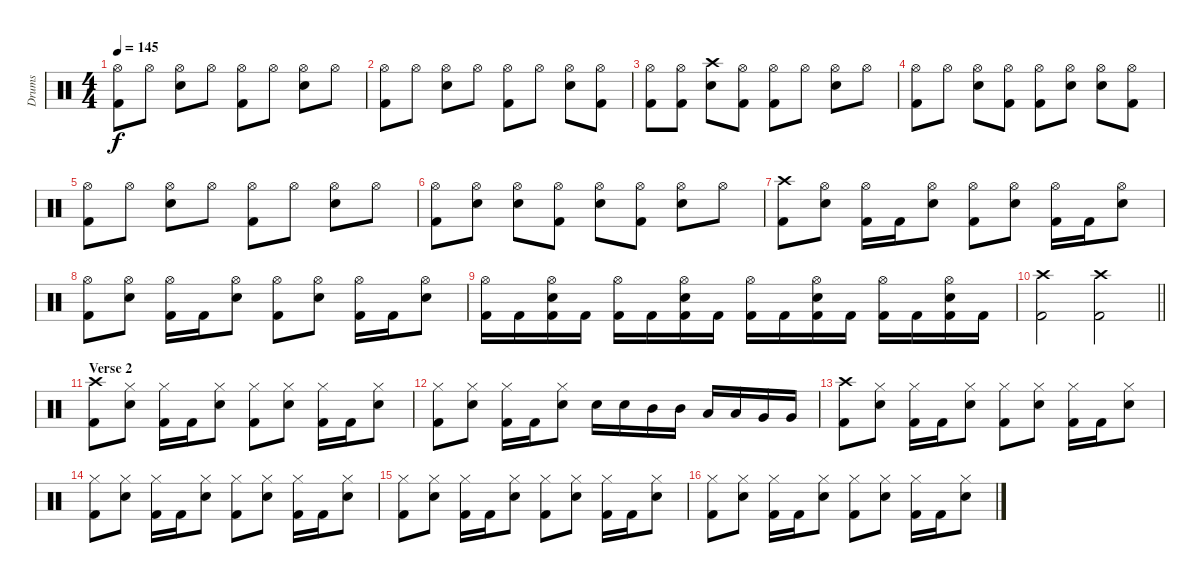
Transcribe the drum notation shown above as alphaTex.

\track ("Drums" "Drums") {instrument percussion}
\staff {score}
\articulation defaults
\ts (4 4)
\tempo 145
\clef neutral
\ks c
("Hi-Hat (open)" "Kick (hit) 2").8{dy f} "Hi-Hat (open)".8 ("Hi-Hat (open)" "Snare (hit) 2").8 "Hi-Hat (open)".8 ("Hi-Hat (open)" "Kick (hit) 2").8 "Hi-Hat (open)".8 ("Hi-Hat (open)" "Snare (hit) 2").8 "Hi-Hat (open)".8 |
("Hi-Hat (open)" "Kick (hit) 2").8 "Hi-Hat (open)".8 ("Hi-Hat (open)" "Snare (hit) 2").8 "Hi-Hat (open)".8 ("Hi-Hat (open)" "Kick (hit) 2").8 "Hi-Hat (open)".8 ("Hi-Hat (open)" "Snare (hit) 2").8 ("Hi-Hat (open)" "Kick (hit) 2").8 |
("Hi-Hat (open)" "Kick (hit) 2").8 ("Hi-Hat (open)" "Kick (hit) 2").8 ("Crash high (hit)" "Snare (hit) 2").8 ("Hi-Hat (open)" "Kick (hit) 2").8 ("Hi-Hat (open)" "Kick (hit) 2").8 "Hi-Hat (open)".8 ("Hi-Hat (open)" "Snare (hit) 2").8 "Hi-Hat (open)".8 |
("Hi-Hat (open)" "Kick (hit) 2").8 "Hi-Hat (open)".8 ("Hi-Hat (open)" "Snare (hit) 2").8 ("Hi-Hat (open)" "Kick (hit) 2").8 ("Hi-Hat (open)" "Kick (hit) 2").8 ("Hi-Hat (open)" "Snare (hit) 2").8 ("Hi-Hat (open)" "Snare (hit) 2").8 ("Hi-Hat (open)" "Kick (hit) 2").8 |
("Hi-Hat (open)" "Kick (hit) 2").8 "Hi-Hat (open)".8 ("Hi-Hat (open)" "Snare (hit) 2").8 "Hi-Hat (open)".8 ("Hi-Hat (open)" "Kick (hit) 2").8 "Hi-Hat (open)".8 ("Hi-Hat (open)" "Snare (hit) 2").8 "Hi-Hat (open)".8 |
("Hi-Hat (open)" "Kick (hit) 2").8 ("Hi-Hat (open)" "Snare (hit) 2").8 ("Hi-Hat (open)" "Snare (hit) 2").8 ("Hi-Hat (open)" "Kick (hit) 2").8 ("Hi-Hat (open)" "Snare (hit) 2").8 ("Hi-Hat (open)" "Kick (hit) 2").8 ("Hi-Hat (open)" "Snare (hit) 2").8 "Hi-Hat (open)".8 |
("Crash high (hit)" "Kick (hit) 2").8 ("Hi-Hat (open)" "Snare (hit) 2").8 ("Hi-Hat (open)" "Kick (hit) 2").16 "Kick (hit) 2".16 ("Hi-Hat (open)" "Snare (hit) 2").8 ("Hi-Hat (open)" "Kick (hit) 2").8 ("Hi-Hat (open)" "Snare (hit) 2").8 ("Hi-Hat (open)" "Kick (hit) 2").16 "Kick (hit) 2".16 ("Hi-Hat (open)" "Snare (hit) 2").8 |
("Hi-Hat (open)" "Kick (hit) 2").8 ("Hi-Hat (open)" "Snare (hit) 2").8 ("Hi-Hat (open)" "Kick (hit) 2").16 "Kick (hit) 2".16 ("Hi-Hat (open)" "Snare (hit) 2").8 ("Hi-Hat (open)" "Kick (hit) 2").8 ("Hi-Hat (open)" "Snare (hit) 2").8 ("Hi-Hat (open)" "Kick (hit) 2").16 "Kick (hit) 2".16 ("Hi-Hat (open)" "Snare (hit) 2").8 |
("Hi-Hat (open)" "Kick (hit) 2").16 "Kick (hit) 2".16 ("Hi-Hat (open)" "Kick (hit) 2" "Snare (hit) 2").16 "Kick (hit) 2".16 ("Hi-Hat (open)" "Kick (hit) 2").16 "Kick (hit) 2".16 ("Hi-Hat (open)" "Kick (hit) 2" "Snare (hit) 2").16 "Kick (hit) 2".16 ("Hi-Hat (open)" "Kick (hit) 2").16 "Kick (hit) 2".16 ("Hi-Hat (open)" "Kick (hit) 2" "Snare (hit) 2").16 "Kick (hit) 2".16 ("Hi-Hat (open)" "Kick (hit) 2").16 "Kick (hit) 2".16 ("Hi-Hat (open)" "Kick (hit) 2" "Snare (hit) 2").16 "Kick (hit) 2".16 |
\barLineRight lightlight
("Crash high (hit)" "Kick (hit) 2").2 ("Crash high (hit)" "Kick (hit) 2").2 |
\section ("" "Verse 2")
("Crash high (hit)" "Kick (hit) 2").8 ("Hi-Hat (closed)" "Snare (hit) 2").8 ("Hi-Hat (closed)" "Kick (hit) 2").16 "Kick (hit) 2".16 ("Hi-Hat (closed)" "Snare (hit) 2").8 ("Hi-Hat (closed)" "Kick (hit) 2").8 ("Hi-Hat (closed)" "Snare (hit) 2").8 ("Hi-Hat (closed)" "Kick (hit) 2").16 "Kick (hit) 2".16 ("Hi-Hat (closed)" "Snare (hit) 2").8 |
("Hi-Hat (closed)" "Kick (hit) 2").8 ("Hi-Hat (closed)" "Snare (hit) 2").8 ("Hi-Hat (closed)" "Kick (hit) 2").16 "Kick (hit) 2".16 ("Hi-Hat (closed)" "Snare (hit) 2").8 "Snare (hit) 2".16 "Snare (hit) 2".16 "Mid Tom (hit)".16 "Mid Tom (hit)".16 "Low Tom (hit)".16 "Low Tom (hit)".16 "Very Low Tom (hit)".16 "Very Low Tom (hit)".16 |
("Crash high (hit)" "Kick (hit) 2").8 ("Hi-Hat (closed)" "Snare (hit) 2").8 ("Hi-Hat (closed)" "Kick (hit) 2").16 "Kick (hit) 2".16 ("Hi-Hat (closed)" "Snare (hit) 2").8 ("Hi-Hat (closed)" "Kick (hit) 2").8 ("Hi-Hat (closed)" "Snare (hit) 2").8 ("Hi-Hat (closed)" "Kick (hit) 2").16 "Kick (hit) 2".16 ("Hi-Hat (closed)" "Snare (hit) 2").8 |
("Hi-Hat (closed)" "Kick (hit) 2").8 ("Hi-Hat (closed)" "Snare (hit) 2").8 ("Hi-Hat (closed)" "Kick (hit) 2").16 "Kick (hit) 2".16 ("Hi-Hat (closed)" "Snare (hit) 2").8 ("Hi-Hat (closed)" "Kick (hit) 2").8 ("Hi-Hat (closed)" "Snare (hit) 2").8 ("Hi-Hat (closed)" "Kick (hit) 2").16 "Kick (hit) 2".16 ("Hi-Hat (closed)" "Snare (hit) 2").8 |
("Hi-Hat (closed)" "Kick (hit) 2").8 ("Hi-Hat (closed)" "Snare (hit) 2").8 ("Hi-Hat (closed)" "Kick (hit) 2").16 "Kick (hit) 2".16 ("Hi-Hat (closed)" "Snare (hit) 2").8 ("Hi-Hat (closed)" "Kick (hit) 2").8 ("Hi-Hat (closed)" "Snare (hit) 2").8 ("Hi-Hat (closed)" "Kick (hit) 2").16 "Kick (hit) 2".16 ("Hi-Hat (closed)" "Snare (hit) 2").8 |
("Hi-Hat (closed)" "Kick (hit) 2").8 ("Hi-Hat (closed)" "Snare (hit) 2").8 ("Hi-Hat (closed)" "Kick (hit) 2").16 "Kick (hit) 2".16 ("Hi-Hat (closed)" "Snare (hit) 2").8 ("Hi-Hat (closed)" "Kick (hit) 2").8 ("Hi-Hat (closed)" "Snare (hit) 2").8 ("Hi-Hat (closed)" "Kick (hit) 2").16 "Kick (hit) 2".16 ("Hi-Hat (closed)" "Snare (hit) 2").8
